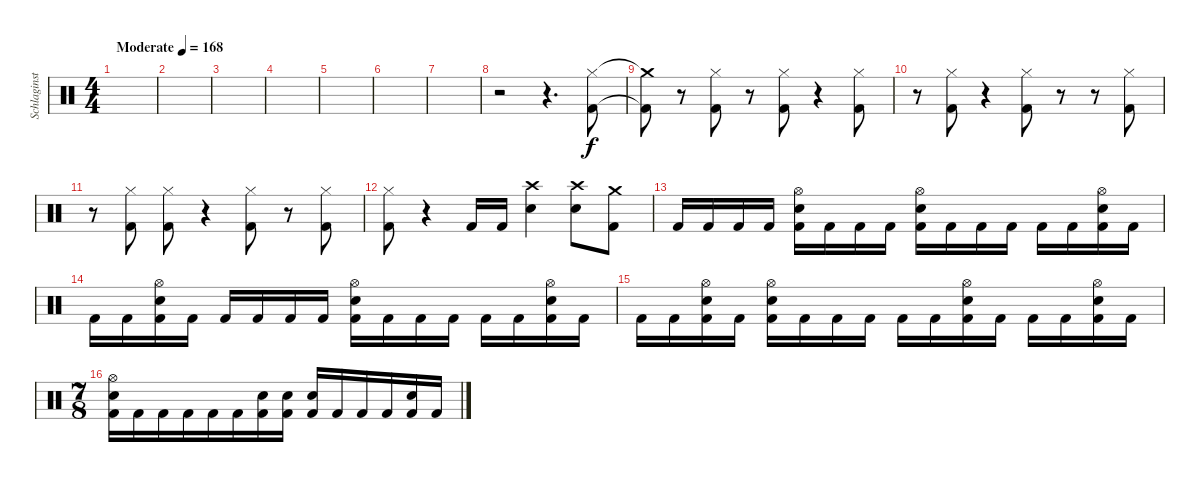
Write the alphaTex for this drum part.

\track ("Schlaginstrumente - Auswahl" "Schlaginst") {instrument percussion}
\staff {score}
\articulation defaults
\ts (4 4)
\tempo (168 "Moderate")
\clef neutral
\ks c
|
|
|
|
|
|
|
r.2 r.4{d} ("Hi-Hat (closed)" "Kick (hit) 2").8 |
("Crash medium (hit)"{t} "Kick (hit) 2"{t}).8 r.8 ("Hi-Hat (closed)" "Kick (hit) 2").8 r.8 ("Hi-Hat (closed)" "Kick (hit) 2").8 r.4 ("Hi-Hat (closed)" "Kick (hit) 2").8 |
r.8 ("Hi-Hat (closed)" "Kick (hit) 2").8 r.4 ("Hi-Hat (closed)" "Kick (hit) 2").8 r.8 r.8 ("Hi-Hat (closed)" "Kick (hit) 2").8 |
r.8 ("Hi-Hat (closed)" "Kick (hit) 2").8 ("Hi-Hat (closed)" "Kick (hit) 2").8 r.4 ("Hi-Hat (closed)" "Kick (hit) 2").8 r.8 ("Hi-Hat (closed)" "Kick (hit) 2").8 |
("Hi-Hat (closed)" "Kick (hit) 2").8 r.4 "Kick (hit) 2".16 "Kick (hit) 2".16 ("Crash high (hit)" "Snare (hit) 2").4 ("Crash high (hit)" "Snare (hit) 2").8 ("Crash medium (hit)" "Kick (hit) 2").8 |
"Kick (hit) 2".16 "Kick (hit) 2".16 "Kick (hit) 2".16 "Kick (hit) 2".16 ("Hi-Hat (open)" "Snare (hit) 2" "Kick (hit) 2").16 "Kick (hit) 2".16 "Kick (hit) 2".16 "Kick (hit) 2".16 ("Hi-Hat (open)" "Snare (hit) 2" "Kick (hit) 2").16 "Kick (hit) 2".16 "Kick (hit) 2".16 "Kick (hit) 2".16 "Kick (hit) 2".16 "Kick (hit) 2".16 ("Hi-Hat (open)" "Snare (hit) 2" "Kick (hit) 2").16 "Kick (hit) 2".16 |
"Kick (hit) 2".16 "Kick (hit) 2".16 ("Hi-Hat (open)" "Snare (hit) 2" "Kick (hit) 2").16 "Kick (hit) 2".16 "Kick (hit) 2".16 "Kick (hit) 2".16 "Kick (hit) 2".16 "Kick (hit) 2".16 ("Hi-Hat (open)" "Snare (hit) 2" "Kick (hit) 2").16 "Kick (hit) 2".16 "Kick (hit) 2".16 "Kick (hit) 2".16 "Kick (hit) 2".16 "Kick (hit) 2".16 ("Hi-Hat (open)" "Snare (hit) 2" "Kick (hit) 2").16 "Kick (hit) 2".16 |
"Kick (hit) 2".16 "Kick (hit) 2".16 ("Hi-Hat (open)" "Snare (hit) 2" "Kick (hit) 2").16 "Kick (hit) 2".16 ("Hi-Hat (open)" "Snare (hit) 2" "Kick (hit) 2").16 "Kick (hit) 2".16 "Kick (hit) 2".16 "Kick (hit) 2".16 "Kick (hit) 2".16 "Kick (hit) 2".16 ("Hi-Hat (open)" "Snare (hit) 2" "Kick (hit) 2").16 "Kick (hit) 2".16 "Kick (hit) 2".16 "Kick (hit) 2".16 ("Hi-Hat (open)" "Snare (hit) 2" "Kick (hit) 2").16 "Kick (hit) 2".16 |
\ts (7 8)
("Hi-Hat (open)" "Snare (hit) 2" "Kick (hit) 2").16 "Kick (hit) 2".16 "Kick (hit) 2".16 "Kick (hit) 2".16 "Kick (hit) 2".16 "Kick (hit) 2".16 ("Snare (hit) 2" "Kick (hit) 2").16 ("Snare (hit) 2" "Kick (hit) 2").16 ("Snare (hit) 2" "Kick (hit) 2").16 "Kick (hit) 2".16 "Kick (hit) 2".16 "Kick (hit) 2".16 ("Snare (hit) 2" "Kick (hit) 2").16 "Kick (hit) 2".16
